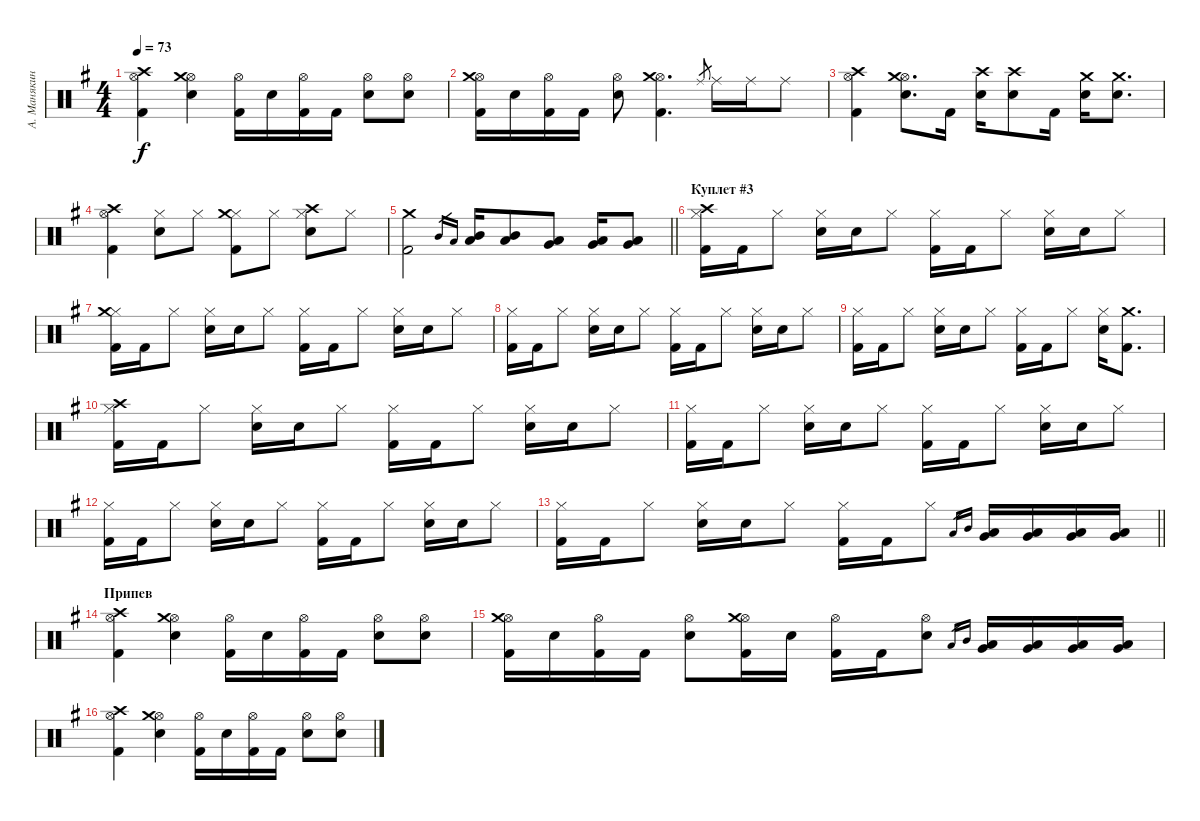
\track ("А. Манякин" "А. Манякин") {instrument percussion}
\staff {score}
\articulation defaults
\ts (4 4)
\tempo 73
\clef neutral
\ks g
("Kick (hit) 2" "Hi-Hat (open)" "Crash high (hit)").4{dy f} ("Electric Snare (hit)" "Hi-Hat (open)" "Crash medium (hit)").4 ("Kick (hit) 2" "Hi-Hat (open)").16 "Electric Snare (hit)".16 ("Kick (hit) 2" "Hi-Hat (open)").16 "Kick (hit) 2".16 ("Electric Snare (hit)" "Hi-Hat (open)").8 ("Electric Snare (hit)" "Hi-Hat (open)").8 |
("Kick (hit) 2" "Hi-Hat (open)" "Crash medium (hit)").16 "Electric Snare (hit)".16 ("Kick (hit) 2" "Hi-Hat (open)").16 "Kick (hit) 2".16 ("Electric Snare (hit)" "Hi-Hat (open)").8 ("Kick (hit) 2" "Hi-Hat (open)" "Crash medium (hit)").4{d} "Ride (middle)".8{gr} "Ride (middle)".16 "Ride (middle)".16 "Ride (middle)".8 |
("Kick (hit) 2" "Hi-Hat (open)" "Crash high (hit)").4 ("Electric Snare (hit)" "Hi-Hat (open)" "Crash medium (hit)").8{d} "Kick (hit) 2".16 ("Electric Snare (hit)" "Crash high (hit)").16 ("Electric Snare (hit)" "Crash high (hit)").8 "Kick (hit) 2".16 ("Electric Snare (hit)" "Crash medium (hit)").16 ("Electric Snare (hit)" "Crash medium (hit)").8{d} |
("Kick (hit) 2" "Hi-Hat (open)" "Crash high (hit)").4 ("Electric Snare (hit)" "Hi-Hat (closed)").8 "Hi-Hat (closed)".8 ("Kick (hit) 2" "Hi-Hat (closed)" "Crash medium (hit)").8 "Hi-Hat (closed)".8 ("Electric Snare (hit)" "Hi-Hat (closed)" "Crash high (hit)").8 "Hi-Hat (closed)".8 |
\barLineRight lightlight
("Kick (hit) 2" "Crash medium (hit)").2 "Mid Tom (hit)".16{gr} "Low Tom (hit)".16{gr} ("Mid Tom (hit)" "Low Tom (hit)").16 ("Mid Tom (hit)" "Low Tom (hit)").8 ("Low Tom (hit)" "Very Low Tom (hit)").8 ("Very Low Tom (hit)" "Low Floor Tom (hit)").16 ("Very Low Tom (hit)" "Low Floor Tom (hit)").8 |
\section ("" "Куплет #3")
("Kick (hit) 2" "Hi-Hat (closed)" "Crash high (hit)").16 "Kick (hit) 2".16 "Hi-Hat (closed)".8 ("Electric Snare (hit)" "Hi-Hat (closed)").16 "Electric Snare (hit)".16 "Hi-Hat (closed)".8 ("Kick (hit) 2" "Hi-Hat (closed)").16 "Kick (hit) 2".16 "Hi-Hat (closed)".8 ("Electric Snare (hit)" "Hi-Hat (closed)").16 "Electric Snare (hit)".16 "Hi-Hat (closed)".8 |
("Kick (hit) 2" "Hi-Hat (closed)" "Crash medium (hit)").16 "Kick (hit) 2".16 "Hi-Hat (closed)".8 ("Electric Snare (hit)" "Hi-Hat (closed)").16 "Electric Snare (hit)".16 "Hi-Hat (closed)".8 ("Kick (hit) 2" "Hi-Hat (closed)").16 "Kick (hit) 2".16 "Hi-Hat (closed)".8 ("Electric Snare (hit)" "Hi-Hat (closed)").16 "Electric Snare (hit)".16 "Hi-Hat (closed)".8 |
("Kick (hit) 2" "Hi-Hat (closed)").16 "Kick (hit) 2".16 "Hi-Hat (closed)".8 ("Electric Snare (hit)" "Hi-Hat (closed)").16 "Electric Snare (hit)".16 "Hi-Hat (closed)".8 ("Kick (hit) 2" "Hi-Hat (closed)").16 "Kick (hit) 2".16 "Hi-Hat (closed)".8 ("Electric Snare (hit)" "Hi-Hat (closed)").16 "Electric Snare (hit)".16 "Hi-Hat (closed)".8 |
("Kick (hit) 2" "Hi-Hat (closed)").16 "Kick (hit) 2".16 "Hi-Hat (closed)".8 ("Electric Snare (hit)" "Hi-Hat (closed)").16 "Electric Snare (hit)".16 "Hi-Hat (closed)".8 ("Kick (hit) 2" "Hi-Hat (closed)").16 "Kick (hit) 2".16 "Hi-Hat (closed)".8 ("Electric Snare (hit)" "Hi-Hat (closed)").16 ("Kick (hit) 2" "Crash medium (hit)").8{d} |
("Kick (hit) 2" "Hi-Hat (closed)" "Crash high (hit)").16 "Kick (hit) 2".16 "Hi-Hat (closed)".8 ("Electric Snare (hit)" "Hi-Hat (closed)").16 "Electric Snare (hit)".16 "Hi-Hat (closed)".8 ("Kick (hit) 2" "Hi-Hat (closed)").16 "Kick (hit) 2".16 "Hi-Hat (closed)".8 ("Electric Snare (hit)" "Hi-Hat (closed)").16 "Electric Snare (hit)".16 "Hi-Hat (closed)".8 |
("Kick (hit) 2" "Hi-Hat (closed)").16 "Kick (hit) 2".16 "Hi-Hat (closed)".8 ("Electric Snare (hit)" "Hi-Hat (closed)").16 "Electric Snare (hit)".16 "Hi-Hat (closed)".8 ("Kick (hit) 2" "Hi-Hat (closed)").16 "Kick (hit) 2".16 "Hi-Hat (closed)".8 ("Electric Snare (hit)" "Hi-Hat (closed)").16 "Electric Snare (hit)".16 "Hi-Hat (closed)".8 |
("Kick (hit) 2" "Hi-Hat (closed)").16 "Kick (hit) 2".16 "Hi-Hat (closed)".8 ("Electric Snare (hit)" "Hi-Hat (closed)").16 "Electric Snare (hit)".16 "Hi-Hat (closed)".8 ("Kick (hit) 2" "Hi-Hat (closed)").16 "Kick (hit) 2".16 "Hi-Hat (closed)".8 ("Electric Snare (hit)" "Hi-Hat (closed)").16 "Electric Snare (hit)".16 "Hi-Hat (closed)".8 |
\barLineRight lightlight
("Kick (hit) 2" "Hi-Hat (closed)").16 "Kick (hit) 2".16 "Hi-Hat (closed)".8 ("Electric Snare (hit)" "Hi-Hat (closed)").16 "Electric Snare (hit)".16 "Hi-Hat (closed)".8 ("Kick (hit) 2" "Hi-Hat (closed)").16 "Kick (hit) 2".16 "Hi-Hat (closed)".8 "Low Tom (hit)".16{gr} "Mid Tom (hit)".16{gr} ("Very Low Tom (hit)" "Low Tom (hit)").16 ("Very Low Tom (hit)" "Low Tom (hit)").16 ("Low Floor Tom (hit)" "Very Low Tom (hit)").16 ("Low Floor Tom (hit)" "Very Low Tom (hit)").16 |
\section ("" "Припев")
("Kick (hit) 2" "Hi-Hat (open)" "Crash high (hit)").4 ("Electric Snare (hit)" "Hi-Hat (open)" "Crash medium (hit)").4 ("Kick (hit) 2" "Hi-Hat (open)").16 "Electric Snare (hit)".16 ("Kick (hit) 2" "Hi-Hat (open)").16 "Kick (hit) 2".16 ("Electric Snare (hit)" "Hi-Hat (open)").8 ("Electric Snare (hit)" "Hi-Hat (open)").8 |
("Kick (hit) 2" "Hi-Hat (open)" "Crash medium (hit)").16 "Electric Snare (hit)".16 ("Kick (hit) 2" "Hi-Hat (open)").16 "Kick (hit) 2".16 ("Electric Snare (hit)" "Hi-Hat (open)").8 ("Kick (hit) 2" "Hi-Hat (open)" "Crash medium (hit)").16 "Electric Snare (hit)".16 ("Kick (hit) 2" "Hi-Hat (open)").16 "Kick (hit) 2".16 ("Electric Snare (hit)" "Hi-Hat (open)").8 "Low Tom (hit)".16{gr} "Mid Tom (hit)".16{gr} ("Very Low Tom (hit)" "Low Tom (hit)").16 ("Very Low Tom (hit)" "Low Tom (hit)").16 ("Low Floor Tom (hit)" "Very Low Tom (hit)").16 ("Low Floor Tom (hit)" "Very Low Tom (hit)").16 |
("Kick (hit) 2" "Hi-Hat (open)" "Crash high (hit)").4 ("Electric Snare (hit)" "Hi-Hat (open)" "Crash medium (hit)").4 ("Kick (hit) 2" "Hi-Hat (open)").16 "Electric Snare (hit)".16 ("Kick (hit) 2" "Hi-Hat (open)").16 "Kick (hit) 2".16 ("Electric Snare (hit)" "Hi-Hat (open)").8 ("Electric Snare (hit)" "Hi-Hat (open)").8
